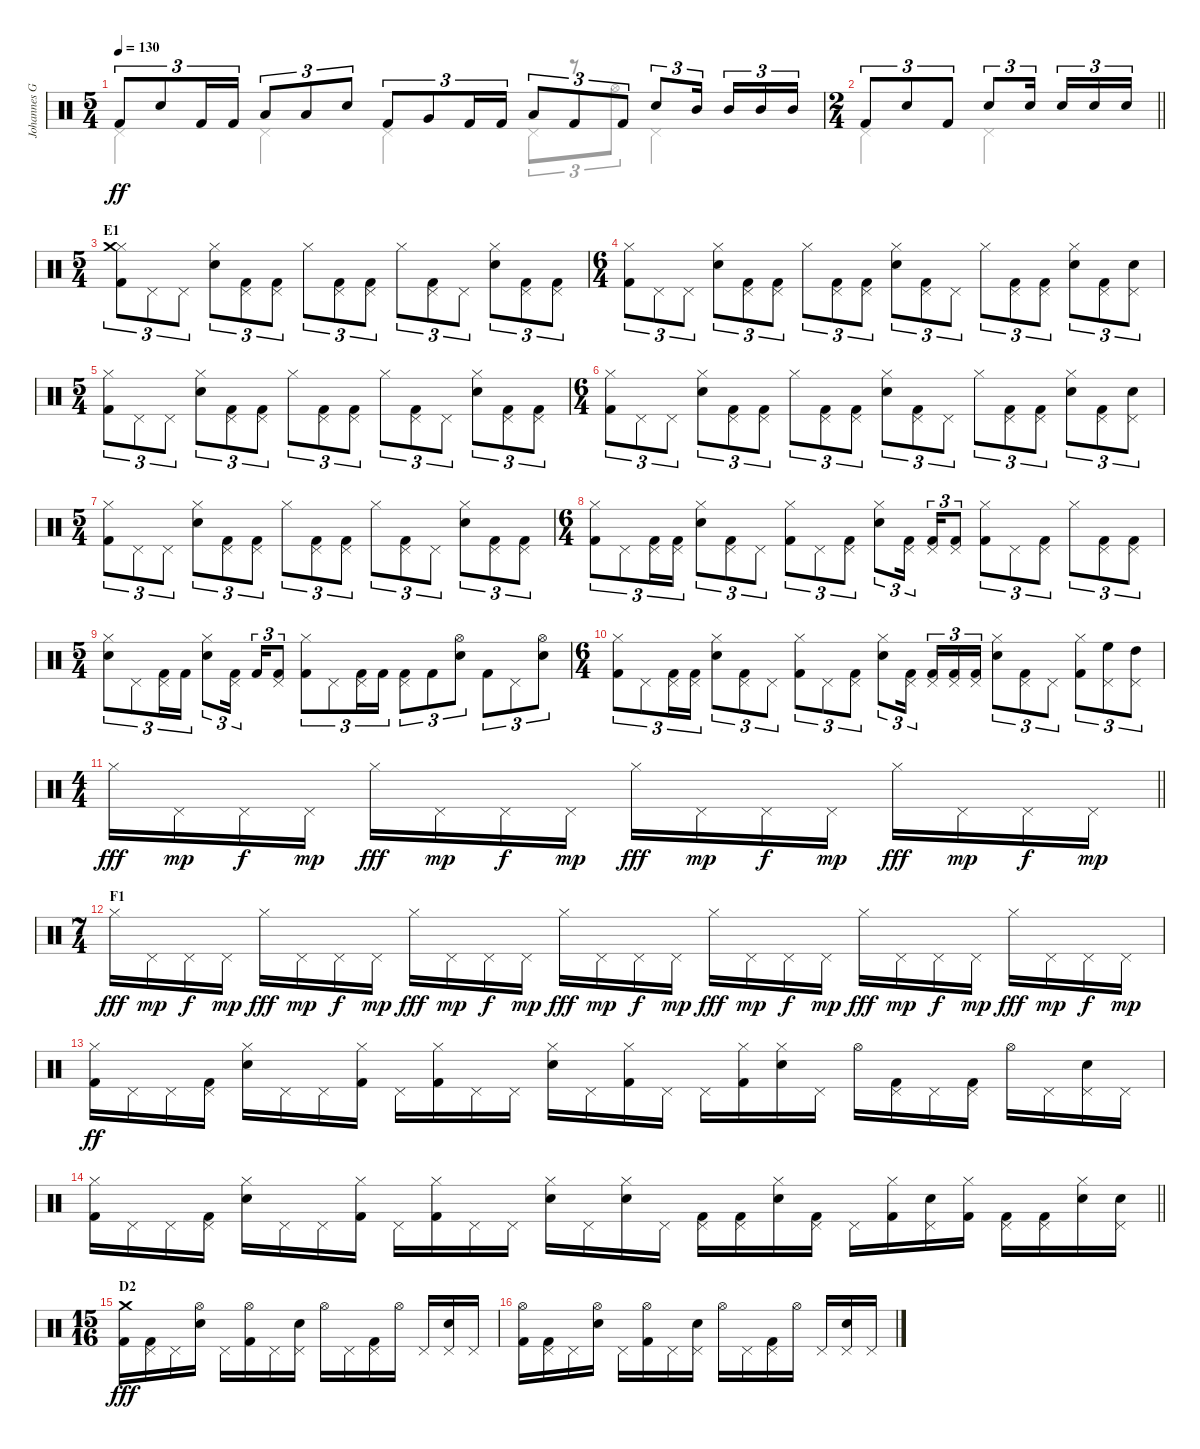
\track ("Johannes Grossmann" "Johannes G") {instrument percussion}
\staff {score}
\articulation defaults
\voice
\ts (5 4)
\tempo 130
\clef neutral
\ks c "Kick (hit) 2".8{tu (3 2) dy ff} "Snare (hit) 2".8{tu (3 2)} "Kick (hit) 2".16{tu (3 2)} "Kick (hit) 2".16{tu (3 2)} "Low Tom (hit)".8{tu (3 2)} "Low Tom (hit)".8{tu (3 2)} "Snare (hit) 2".8{tu (3 2)} "Kick (hit) 2".8{tu (3 2)} "Very Low Tom (hit)".8{tu (3 2)} "Kick (hit) 2".16{tu (3 2)} "Kick (hit) 2".16{tu (3 2)} "Low Floor Tom (hit)".8{tu (3 2)} "Kick (hit) 2".8{tu (3 2)} "Kick (hit) 2".8{tu (3 2)} "Snare (hit) 2".8{tu (3 2)} "Mid Tom (hit)".16{tu (3 2) beam splitsecondary} "Mid Tom (hit)".16{tu (3 2)} "Mid Tom (hit)".16{tu (3 2)} "Mid Tom (hit)".16{tu (3 2)}
|
\ts (2 4)
\barLineRight lightlight "Kick (hit) 2".8{tu (3 2)} "Snare (hit) 2".8{tu (3 2)} "Kick (hit) 2".8{tu (3 2)} "Snare (hit) 2".8{tu (3 2)} "Snare (hit) 2".16{tu (3 2) beam splitsecondary} "Snare (hit) 2".16{tu (3 2)} "Snare (hit) 2".16{tu (3 2)} "Snare (hit) 2".16{tu (3 2)}
|
\ts (5 4)
\section ("" "E1")
("Hi-Hat (closed)" "Crash medium (hit)" "Kick (hit) 2").8{tu (3 2)} "Pedal Hi-Hat (hit)".8{tu (3 2)} "Pedal Hi-Hat (hit)".8{tu (3 2)} ("Hi-Hat (closed)" "Snare (hit) 2").8{tu (3 2)} ("Pedal Hi-Hat (hit)" "Kick (hit) 2").8{tu (3 2)} ("Pedal Hi-Hat (hit)" "Kick (hit) 2").8{tu (3 2)} "Hi-Hat (closed)".8{tu (3 2)} ("Pedal Hi-Hat (hit)" "Kick (hit) 2").8{tu (3 2)} ("Pedal Hi-Hat (hit)" "Kick (hit) 2").8{tu (3 2)} "Hi-Hat (closed)".8{tu (3 2)} ("Pedal Hi-Hat (hit)" "Kick (hit) 2").8{tu (3 2)} "Pedal Hi-Hat (hit)".8{tu (3 2)} ("Hi-Hat (closed)" "Snare (hit) 2").8{tu (3 2)} ("Pedal Hi-Hat (hit)" "Kick (hit) 2").8{tu (3 2)} ("Pedal Hi-Hat (hit)" "Kick (hit) 2").8{tu (3 2)} |
\ts (6 4)
("Hi-Hat (closed)" "Kick (hit) 2").8{tu (3 2)} "Pedal Hi-Hat (hit)".8{tu (3 2)} "Pedal Hi-Hat (hit)".8{tu (3 2)} ("Hi-Hat (closed)" "Snare (hit) 2").8{tu (3 2)} ("Pedal Hi-Hat (hit)" "Kick (hit) 2").8{tu (3 2)} ("Pedal Hi-Hat (hit)" "Kick (hit) 2").8{tu (3 2)} "Hi-Hat (closed)".8{tu (3 2)} ("Pedal Hi-Hat (hit)" "Kick (hit) 2").8{tu (3 2)} ("Pedal Hi-Hat (hit)" "Kick (hit) 2").8{tu (3 2)} ("Hi-Hat (closed)" "Snare (hit) 2").8{tu (3 2)} ("Pedal Hi-Hat (hit)" "Kick (hit) 2").8{tu (3 2)} "Pedal Hi-Hat (hit)".8{tu (3 2)} "Hi-Hat (closed)".8{tu (3 2)} ("Pedal Hi-Hat (hit)" "Kick (hit) 2").8{tu (3 2)} ("Pedal Hi-Hat (hit)" "Kick (hit) 2").8{tu (3 2)} ("Hi-Hat (closed)" "Snare (hit) 2").8{tu (3 2)} ("Pedal Hi-Hat (hit)" "Kick (hit) 2").8{tu (3 2)} ("Pedal Hi-Hat (hit)" "Snare (hit) 2").8{tu (3 2)} |
\ts (5 4)
("Hi-Hat (closed)" "Kick (hit) 2").8{tu (3 2)} "Pedal Hi-Hat (hit)".8{tu (3 2)} "Pedal Hi-Hat (hit)".8{tu (3 2)} ("Hi-Hat (closed)" "Snare (hit) 2").8{tu (3 2)} ("Pedal Hi-Hat (hit)" "Kick (hit) 2").8{tu (3 2)} ("Pedal Hi-Hat (hit)" "Kick (hit) 2").8{tu (3 2)} "Hi-Hat (closed)".8{tu (3 2)} ("Pedal Hi-Hat (hit)" "Kick (hit) 2").8{tu (3 2)} ("Pedal Hi-Hat (hit)" "Kick (hit) 2").8{tu (3 2)} "Hi-Hat (closed)".8{tu (3 2)} ("Pedal Hi-Hat (hit)" "Kick (hit) 2").8{tu (3 2)} "Pedal Hi-Hat (hit)".8{tu (3 2)} ("Hi-Hat (closed)" "Snare (hit) 2").8{tu (3 2)} ("Pedal Hi-Hat (hit)" "Kick (hit) 2").8{tu (3 2)} ("Pedal Hi-Hat (hit)" "Kick (hit) 2").8{tu (3 2)} |
\ts (6 4)
("Hi-Hat (closed)" "Kick (hit) 2").8{tu (3 2)} "Pedal Hi-Hat (hit)".8{tu (3 2)} "Pedal Hi-Hat (hit)".8{tu (3 2)} ("Hi-Hat (closed)" "Snare (hit) 2").8{tu (3 2)} ("Pedal Hi-Hat (hit)" "Kick (hit) 2").8{tu (3 2)} ("Pedal Hi-Hat (hit)" "Kick (hit) 2").8{tu (3 2)} "Hi-Hat (closed)".8{tu (3 2)} ("Pedal Hi-Hat (hit)" "Kick (hit) 2").8{tu (3 2)} ("Pedal Hi-Hat (hit)" "Kick (hit) 2").8{tu (3 2)} ("Hi-Hat (closed)" "Snare (hit) 2").8{tu (3 2)} ("Pedal Hi-Hat (hit)" "Kick (hit) 2").8{tu (3 2)} "Pedal Hi-Hat (hit)".8{tu (3 2)} "Hi-Hat (closed)".8{tu (3 2)} ("Pedal Hi-Hat (hit)" "Kick (hit) 2").8{tu (3 2)} ("Pedal Hi-Hat (hit)" "Kick (hit) 2").8{tu (3 2)} ("Hi-Hat (closed)" "Snare (hit) 2").8{tu (3 2)} ("Pedal Hi-Hat (hit)" "Kick (hit) 2").8{tu (3 2)} ("Pedal Hi-Hat (hit)" "Snare (hit) 2").8{tu (3 2)} |
\ts (5 4)
("Hi-Hat (closed)" "Kick (hit) 2").8{tu (3 2)} "Pedal Hi-Hat (hit)".8{tu (3 2)} "Pedal Hi-Hat (hit)".8{tu (3 2)} ("Hi-Hat (closed)" "Snare (hit) 2").8{tu (3 2)} ("Pedal Hi-Hat (hit)" "Kick (hit) 2").8{tu (3 2)} ("Pedal Hi-Hat (hit)" "Kick (hit) 2").8{tu (3 2)} "Hi-Hat (closed)".8{tu (3 2)} ("Pedal Hi-Hat (hit)" "Kick (hit) 2").8{tu (3 2)} ("Pedal Hi-Hat (hit)" "Kick (hit) 2").8{tu (3 2)} "Hi-Hat (closed)".8{tu (3 2)} ("Pedal Hi-Hat (hit)" "Kick (hit) 2").8{tu (3 2)} "Pedal Hi-Hat (hit)".8{tu (3 2)} ("Hi-Hat (closed)" "Snare (hit) 2").8{tu (3 2)} ("Pedal Hi-Hat (hit)" "Kick (hit) 2").8{tu (3 2)} ("Pedal Hi-Hat (hit)" "Kick (hit) 2").8{tu (3 2)} |
\ts (6 4)
("Hi-Hat (closed)" "Kick (hit) 2").8{tu (3 2)} "Pedal Hi-Hat (hit)".8{tu (3 2)} ("Pedal Hi-Hat (hit)" "Kick (hit) 2").16{tu (3 2)} ("Pedal Hi-Hat (hit)" "Kick (hit) 2").16{tu (3 2)} ("Hi-Hat (closed)" "Snare (hit) 2").8{tu (3 2)} ("Pedal Hi-Hat (hit)" "Kick (hit) 2").8{tu (3 2)} "Pedal Hi-Hat (hit)".8{tu (3 2)} ("Hi-Hat (closed)" "Kick (hit) 2").8{tu (3 2)} "Pedal Hi-Hat (hit)".8{tu (3 2)} ("Pedal Hi-Hat (hit)" "Kick (hit) 2").8{tu (3 2)} ("Hi-Hat (closed)" "Snare (hit) 2").8{tu (3 2)} ("Pedal Hi-Hat (hit)" "Kick (hit) 2").16{tu (3 2) beam splitsecondary} ("Pedal Hi-Hat (hit)" "Kick (hit) 2").16{tu (3 2)} ("Pedal Hi-Hat (hit)" "Kick (hit) 2").8{tu (3 2)} ("Hi-Hat (closed)" "Kick (hit) 2").8{tu (3 2)} "Pedal Hi-Hat (hit)".8{tu (3 2)} ("Pedal Hi-Hat (hit)" "Kick (hit) 2").8{tu (3 2)} "Hi-Hat (closed)".8{tu (3 2)} ("Pedal Hi-Hat (hit)" "Kick (hit) 2").8{tu (3 2)} ("Pedal Hi-Hat (hit)" "Kick (hit) 2").8{tu (3 2)} |
\ts (5 4)
("Hi-Hat (closed)" "Snare (hit) 2").8{tu (3 2)} "Pedal Hi-Hat (hit)".8{tu (3 2)} ("Pedal Hi-Hat (hit)" "Kick (hit) 2").16{tu (3 2)} "Kick (hit) 2".16{tu (3 2)} ("Hi-Hat (closed)" "Snare (hit) 2").8{tu (3 2)} ("Pedal Hi-Hat (hit)" "Kick (hit) 2").16{tu (3 2) beam splitsecondary} "Kick (hit) 2".16{tu (3 2)} ("Pedal Hi-Hat (hit)" "Kick (hit) 2").8{tu (3 2)} ("Hi-Hat (closed)" "Kick (hit) 2").8{tu (3 2)} "Pedal Hi-Hat (hit)".8{tu (3 2)} ("Pedal Hi-Hat (hit)" "Kick (hit) 2").16{tu (3 2)} "Kick (hit) 2".16{tu (3 2)} ("Pedal Hi-Hat (hit)" "Kick (hit) 2").8{tu (3 2)} "Kick (hit) 2".8{tu (3 2)} ("Hi-Hat (open)" "Snare (hit) 2").8{tu (3 2)} "Kick (hit) 2".8{tu (3 2)} "Pedal Hi-Hat (hit)".8{tu (3 2)} ("Hi-Hat (open)" "Snare (hit) 2").8{tu (3 2)} |
\ts (6 4)
("Hi-Hat (closed)" "Kick (hit) 2").8{tu (3 2)} "Pedal Hi-Hat (hit)".8{tu (3 2)} ("Pedal Hi-Hat (hit)" "Kick (hit) 2").16{tu (3 2)} ("Pedal Hi-Hat (hit)" "Kick (hit) 2").16{tu (3 2)} ("Hi-Hat (closed)" "Snare (hit) 2").8{tu (3 2)} ("Pedal Hi-Hat (hit)" "Kick (hit) 2").8{tu (3 2)} "Pedal Hi-Hat (hit)".8{tu (3 2)} ("Hi-Hat (closed)" "Kick (hit) 2").8{tu (3 2)} "Pedal Hi-Hat (hit)".8{tu (3 2)} ("Pedal Hi-Hat (hit)" "Kick (hit) 2").8{tu (3 2)} ("Hi-Hat (closed)" "Snare (hit) 2").8{tu (3 2)} ("Pedal Hi-Hat (hit)" "Kick (hit) 2").16{tu (3 2) beam splitsecondary} ("Pedal Hi-Hat (hit)" "Kick (hit) 2").16{tu (3 2)} ("Pedal Hi-Hat (hit)" "Kick (hit) 2").16{tu (3 2)} ("Pedal Hi-Hat (hit)" "Kick (hit) 2").16{tu (3 2)} ("Hi-Hat (closed)" "Snare (hit) 2").8{tu (3 2)} ("Pedal Hi-Hat (hit)" "Kick (hit) 2").8{tu (3 2)} "Pedal Hi-Hat (hit)".8{tu (3 2)} ("Hi-Hat (closed)" "Kick (hit) 2").8{tu (3 2)} ("Pedal Hi-Hat (hit)" "High Floor Tom (hit)").8{tu (3 2)} ("Pedal Hi-Hat (hit)" "High Tom (hit)").8{tu (3 2)} |
\ts (4 4)
\barLineRight lightlight "Hi-Hat (closed)".16{dy fff} "Pedal Hi-Hat (hit)".16{dy mp} "Pedal Hi-Hat (hit)".16{dy f} "Pedal Hi-Hat (hit)".16{dy mp} "Hi-Hat (closed)".16{dy fff} "Pedal Hi-Hat (hit)".16{dy mp} "Pedal Hi-Hat (hit)".16{dy f} "Pedal Hi-Hat (hit)".16{dy mp} "Hi-Hat (closed)".16{dy fff} "Pedal Hi-Hat (hit)".16{dy mp} "Pedal Hi-Hat (hit)".16{dy f} "Pedal Hi-Hat (hit)".16{dy mp} "Hi-Hat (closed)".16{dy fff} "Pedal Hi-Hat (hit)".16{dy mp} "Pedal Hi-Hat (hit)".16{dy f} "Pedal Hi-Hat (hit)".16{dy mp}
|
\ts (7 4)
\section ("" "F1")
"Hi-Hat (closed)".16{dy fff} "Pedal Hi-Hat (hit)".16{dy mp} "Pedal Hi-Hat (hit)".16{dy f} "Pedal Hi-Hat (hit)".16{dy mp} "Hi-Hat (closed)".16{dy fff} "Pedal Hi-Hat (hit)".16{dy mp} "Pedal Hi-Hat (hit)".16{dy f} "Pedal Hi-Hat (hit)".16{dy mp} "Hi-Hat (closed)".16{dy fff} "Pedal Hi-Hat (hit)".16{dy mp} "Pedal Hi-Hat (hit)".16{dy f} "Pedal Hi-Hat (hit)".16{dy mp} "Hi-Hat (closed)".16{dy fff} "Pedal Hi-Hat (hit)".16{dy mp} "Pedal Hi-Hat (hit)".16{dy f} "Pedal Hi-Hat (hit)".16{dy mp} "Hi-Hat (closed)".16{dy fff} "Pedal Hi-Hat (hit)".16{dy mp} "Pedal Hi-Hat (hit)".16{dy f} "Pedal Hi-Hat (hit)".16{dy mp} "Hi-Hat (closed)".16{dy fff} "Pedal Hi-Hat (hit)".16{dy mp} "Pedal Hi-Hat (hit)".16{dy f} "Pedal Hi-Hat (hit)".16{dy mp} "Hi-Hat (closed)".16{dy fff} "Pedal Hi-Hat (hit)".16{dy mp} "Pedal Hi-Hat (hit)".16{dy f} "Pedal Hi-Hat (hit)".16{dy mp} |
("Hi-Hat (closed)" "Kick (hit) 2").16{dy ff} "Pedal Hi-Hat (hit)".16 "Pedal Hi-Hat (hit)".16 ("Pedal Hi-Hat (hit)" "Kick (hit) 2").16 ("Hi-Hat (closed)" "Snare (hit) 2").16 "Pedal Hi-Hat (hit)".16 "Pedal Hi-Hat (hit)".16 ("Hi-Hat (closed)" "Kick (hit) 2").16 "Pedal Hi-Hat (hit)".16 ("Hi-Hat (closed)" "Kick (hit) 2").16 "Pedal Hi-Hat (hit)".16 "Pedal Hi-Hat (hit)".16 ("Hi-Hat (closed)" "Snare (hit) 2").16 "Pedal Hi-Hat (hit)".16 ("Hi-Hat (closed)" "Kick (hit) 2").16 "Pedal Hi-Hat (hit)".16 "Pedal Hi-Hat (hit)".16 ("Hi-Hat (closed)" "Kick (hit) 2").16 ("Hi-Hat (closed)" "Snare (hit) 2").16 "Pedal Hi-Hat (hit)".16 "Hi-Hat (open)".16 ("Pedal Hi-Hat (hit)" "Kick (hit) 2").16 "Pedal Hi-Hat (hit)".16 ("Pedal Hi-Hat (hit)" "Kick (hit) 2").16 "Hi-Hat (open)".16 "Pedal Hi-Hat (hit)".16 ("Pedal Hi-Hat (hit)" "Snare (hit) 2").16 "Pedal Hi-Hat (hit)".16 |
\barLineRight lightlight
("Hi-Hat (closed)" "Kick (hit) 2").16 "Pedal Hi-Hat (hit)".16 "Pedal Hi-Hat (hit)".16 ("Pedal Hi-Hat (hit)" "Kick (hit) 2").16 ("Hi-Hat (closed)" "Snare (hit) 2").16 "Pedal Hi-Hat (hit)".16 "Pedal Hi-Hat (hit)".16 ("Hi-Hat (closed)" "Kick (hit) 2").16 "Pedal Hi-Hat (hit)".16 ("Hi-Hat (closed)" "Kick (hit) 2").16 "Pedal Hi-Hat (hit)".16 "Pedal Hi-Hat (hit)".16 ("Hi-Hat (closed)" "Snare (hit) 2").16 "Pedal Hi-Hat (hit)".16 ("Hi-Hat (closed)" "Snare (hit) 2").16 "Pedal Hi-Hat (hit)".16 ("Pedal Hi-Hat (hit)" "Kick (hit) 2").16 ("Pedal Hi-Hat (hit)" "Kick (hit) 2").16 ("Hi-Hat (closed)" "Snare (hit) 2").16 ("Pedal Hi-Hat (hit)" "Kick (hit) 2").16 "Pedal Hi-Hat (hit)".16 ("Hi-Hat (closed)" "Kick (hit) 2").16 ("Pedal Hi-Hat (hit)" "Snare (hit) 2").16 ("Hi-Hat (closed)" "Kick (hit) 2").16 ("Pedal Hi-Hat (hit)" "Kick (hit) 2").16 ("Pedal Hi-Hat (hit)" "Kick (hit) 2").16 ("Hi-Hat (closed)" "Snare (hit) 2").16 ("Pedal Hi-Hat (hit)" "Snare (hit) 2").16 |
\ts (15 16)
\section ("" "D2")
("Crash medium (hit)" "Kick (hit) 2").16{dy fff} ("Pedal Hi-Hat (hit)" "Kick (hit) 2").16 "Pedal Hi-Hat (hit)".16 ("Hi-Hat (open)" "Snare (hit) 2").16 "Pedal Hi-Hat (hit)".16 ("Hi-Hat (open)" "Kick (hit) 2").16 "Pedal Hi-Hat (hit)".16 ("Pedal Hi-Hat (hit)" "Snare (hit) 2").16 "Hi-Hat (open)".16 "Pedal Hi-Hat (hit)".16 ("Pedal Hi-Hat (hit)" "Kick (hit) 2").16 "Hi-Hat (open)".16 "Pedal Hi-Hat (hit)".16 ("Pedal Hi-Hat (hit)" "Snare (hit) 2").16 "Pedal Hi-Hat (hit)".16 |
("Hi-Hat (open)" "Kick (hit) 2").16 ("Pedal Hi-Hat (hit)" "Kick (hit) 2").16 "Pedal Hi-Hat (hit)".16 ("Hi-Hat (open)" "Snare (hit) 2").16 "Pedal Hi-Hat (hit)".16 ("Hi-Hat (open)" "Kick (hit) 2").16 "Pedal Hi-Hat (hit)".16 ("Pedal Hi-Hat (hit)" "Snare (hit) 2").16 "Hi-Hat (open)".16 "Pedal Hi-Hat (hit)".16 ("Pedal Hi-Hat (hit)" "Kick (hit) 2").16 "Hi-Hat (open)".16 "Pedal Hi-Hat (hit)".16 ("Pedal Hi-Hat (hit)" "Snare (hit) 2").16 "Pedal Hi-Hat (hit)".16
\voice
\clef neutral
\ottava regular
\simile none
\ks c "Pedal Hi-Hat (hit)".4{dy ff} "Pedal Hi-Hat (hit)".4 "Pedal Hi-Hat (hit)".4 "Pedal Hi-Hat (hit)".8{tu (3 2)}
r.8{tu (3 2)} "Hi-Hat (open)".8{tu (3 2)} "Pedal Hi-Hat (hit)".4 |
\barLineRight lightlight "Pedal Hi-Hat (hit)".4 "Pedal Hi-Hat (hit)".4
|
|
|
|
|
|
|
|
|
\barLineRight lightlight
|
|
|
\barLineRight lightlight
|
|
